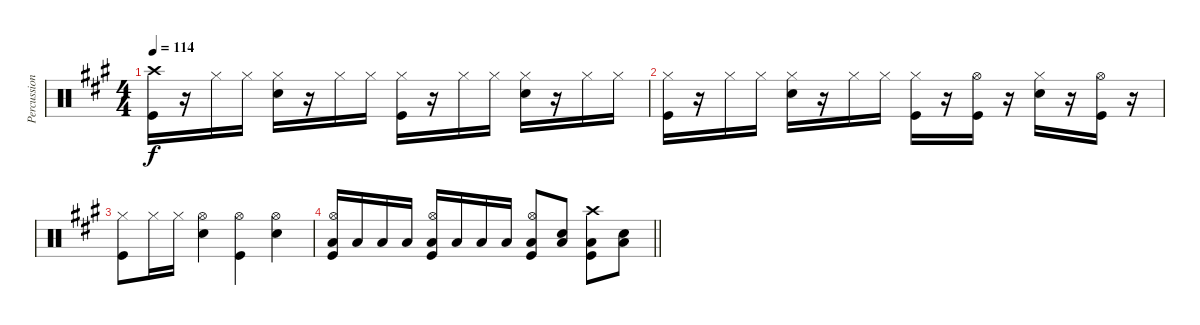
\track ("Percussion" "Percussion") {instrument percussion}
\staff {score}
\articulation defaults
\ts (4 4)
\tempo 114
\clef neutral
\ks a
("Crash high (hit)" "Kick (hit)").16{dy f} r.16 "Hi-Hat (closed)".16 "Hi-Hat (closed)".16 ("Hi-Hat (closed)" "Snare (hit) 2").16 r.16 "Hi-Hat (closed)".16 "Hi-Hat (closed)".16 ("Hi-Hat (closed)" "Kick (hit)").16 r.16 "Hi-Hat (closed)".16 "Hi-Hat (closed)".16 ("Hi-Hat (closed)" "Snare (hit) 2").16 r.16 "Hi-Hat (closed)".16 "Hi-Hat (closed)".16 |
("Hi-Hat (closed)" "Kick (hit)").16 r.16 "Hi-Hat (closed)".16 "Hi-Hat (closed)".16 ("Hi-Hat (closed)" "Snare (hit) 2").16 r.16 "Hi-Hat (closed)".16 "Hi-Hat (closed)".16 ("Hi-Hat (closed)" "Kick (hit)").16 r.16 ("Hi-Hat (open)" "Kick (hit)").16 r.16 ("Hi-Hat (closed)" "Snare (hit) 2").16 r.16 ("Hi-Hat (open)" "Kick (hit)").16 r.16 |
("Hi-Hat (closed)" "Kick (hit)").8 "Hi-Hat (closed)".16 "Hi-Hat (closed)".16 ("Hi-Hat (open)" "Snare (hit) 2").4 ("Hi-Hat (open)" "Kick (hit)").4 ("Hi-Hat (open)" "Snare (hit) 2").4 |
\barLineRight lightlight
("Hi-Hat (open)" "Low Tom (hit)" "Kick (hit)").16 "Low Tom (hit)".16 "Low Tom (hit)".16 "Low Tom (hit)".16 ("Hi-Hat (open)" "Low Tom (hit)" "Kick (hit)").16 "Low Tom (hit)".16 "Low Tom (hit)".16 "Low Tom (hit)".16 ("Hi-Hat (open)" "Low Tom (hit)" "Kick (hit)").8 ("Low Tom (hit)" "Snare (hit) 2").8 ("Crash high (hit)" "Low Tom (hit)" "Kick (hit)").8 ("Low Tom (hit)" "Snare (hit) 2").8
